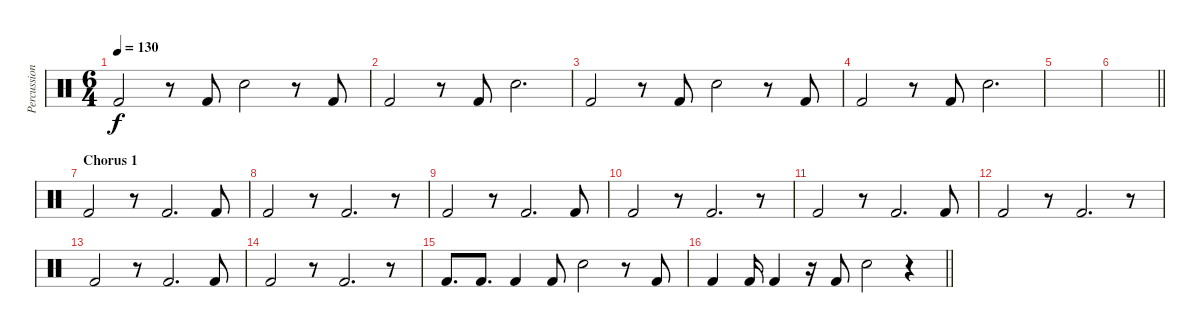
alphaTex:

\track ("Percussion" "Percussion") {instrument percussion}
\staff {score}
\articulation defaults
\ts (6 4)
\tempo 130
\clef neutral
\ks c "Kick (hit) 2".2{dy f}
r.8 "Kick (hit) 2".8 "Electric Snare (hit)".2 r.8 "Kick (hit) 2".8 |
"Kick (hit) 2".2 r.8 "Kick (hit) 2".8 "Electric Snare (hit)".2{d} |
"Kick (hit) 2".2 r.8 "Kick (hit) 2".8 "Electric Snare (hit)".2 r.8 "Kick (hit) 2".8 |
"Kick (hit) 2".2 r.8 "Kick (hit) 2".8 "Electric Snare (hit)".2{d} |
|
\barLineRight lightlight
|
\section ("" "Chorus 1")
"Kick (hit) 2".2{volume 14} r.8 "Kick (hit) 2".2{d} "Kick (hit) 2".8 |
"Kick (hit) 2".2 r.8 "Kick (hit) 2".2{d} r.8 |
"Kick (hit) 2".2 r.8 "Kick (hit) 2".2{d} "Kick (hit) 2".8 |
"Kick (hit) 2".2 r.8 "Kick (hit) 2".2{d} r.8 |
"Kick (hit) 2".2 r.8 "Kick (hit) 2".2{d} "Kick (hit) 2".8 |
"Kick (hit) 2".2 r.8 "Kick (hit) 2".2{d} r.8 |
"Kick (hit) 2".2 r.8 "Kick (hit) 2".2{d} "Kick (hit) 2".8 |
"Kick (hit) 2".2 r.8 "Kick (hit) 2".2{d} r.8 |
"Kick (hit) 2".8{d} "Kick (hit) 2".8{d} "Kick (hit) 2".4 "Kick (hit) 2".8 "Electric Snare (hit)".2 r.8 "Kick (hit) 2".8 |
\barLineRight lightlight "Kick (hit) 2".4 "Kick (hit) 2".16 "Kick (hit) 2".4
r.16 "Kick (hit) 2".8 "Electric Snare (hit)".2 r.4
